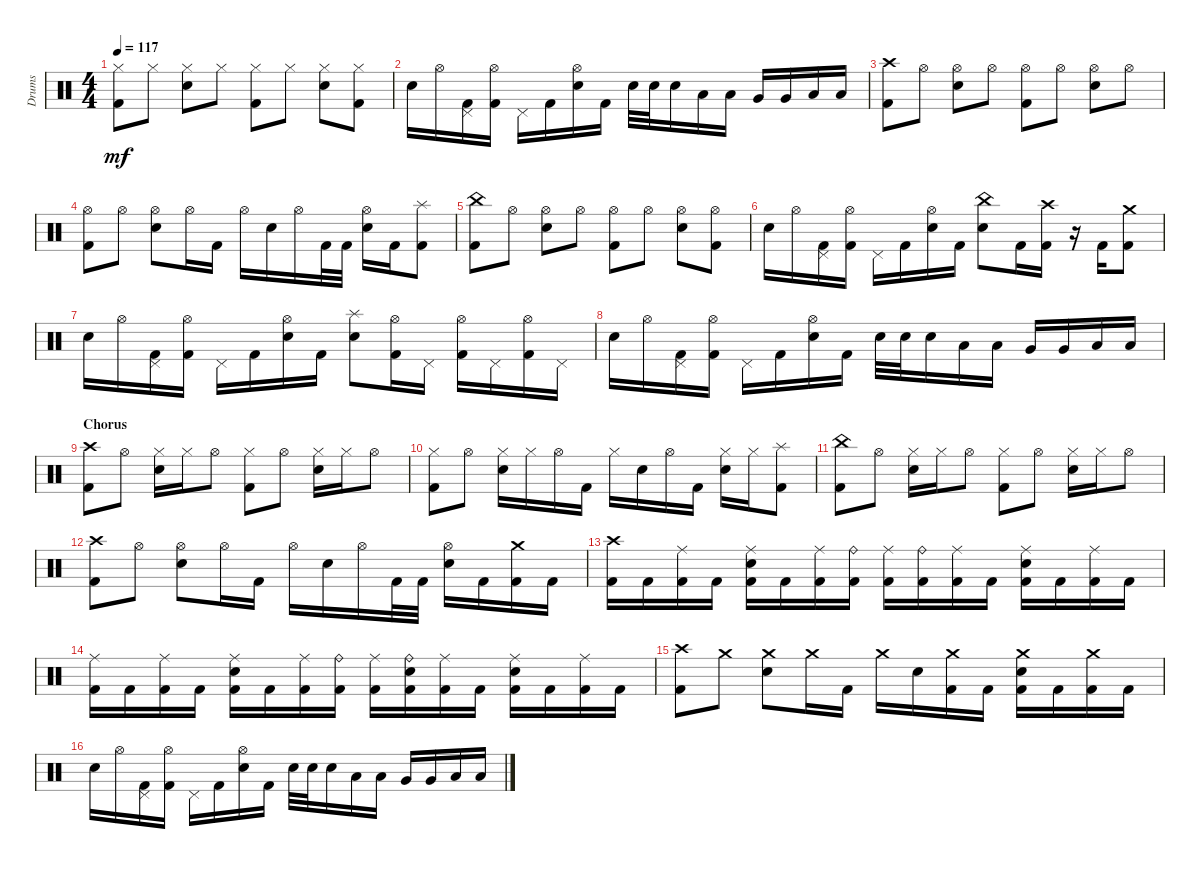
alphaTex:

\track ("Drums" "Drums") {instrument percussion}
\staff {score}
\articulation defaults
\ts (4 4)
\tempo 117
\clef neutral
\ks aminor
("Kick (hit) 2" "Hi-Hat (closed)").8{dy mf} "Hi-Hat (closed)".8 ("Hi-Hat (closed)" "Snare (hit) 2").8 "Hi-Hat (closed)".8 ("Kick (hit) 2" "Hi-Hat (closed)").8 "Hi-Hat (closed)".8 ("Hi-Hat (closed)" "Snare (hit) 2").8 ("Hi-Hat (closed)" "Kick (hit) 2").8 |
"Snare (hit) 2".16 "Hi-Hat (open)".16 ("Kick (hit) 2" "Pedal Hi-Hat (hit)").16 ("Hi-Hat (open)" "Kick (hit) 2").16 "Pedal Hi-Hat (hit)".16 "Kick (hit) 2".16 ("Snare (hit) 2" "Hi-Hat (open)").16 "Kick (hit) 2".16 "Snare (hit) 2".32 "Snare (hit) 2".32 "Snare (hit) 2".16 "Low Tom (hit)".16 "Low Tom (hit)".16 "Very Low Tom (hit)".16 "Very Low Tom (hit)".16 "Low Floor Tom (hit)".16 "Low Floor Tom (hit)".16 |
("Kick (hit) 2" "Crash high (hit)").8 "Hi-Hat (open)".8 ("Hi-Hat (open)" "Snare (hit) 2").8 "Hi-Hat (open)".8 ("Kick (hit) 2" "Hi-Hat (open)").8 "Hi-Hat (open)".8 ("Hi-Hat (open)" "Snare (hit) 2").8 "Hi-Hat (open)".8 |
("Kick (hit) 2" "Hi-Hat (open)").8 "Hi-Hat (open)".8 ("Hi-Hat (open)" "Snare (hit) 2").8 "Hi-Hat (open)".16 "Kick (hit) 2".16 "Hi-Hat (open)".16 "Snare (hit) 2".16 "Hi-Hat (open)".16 "Kick (hit) 2".32 "Kick (hit) 2".32 ("Hi-Hat (open)" "Snare (hit) 2").16 "Kick (hit) 2".16 ("Splash (hit)" "Kick (hit) 2").8 |
("Kick (hit) 2" "China (hit)").8 "Hi-Hat (open)".8 ("Snare (hit) 2" "Hi-Hat (open)").8 "Hi-Hat (open)".8 ("Hi-Hat (open)" "Kick (hit) 2").8 "Hi-Hat (open)".8 ("Snare (hit) 2" "Hi-Hat (open)").8 ("Hi-Hat (open)" "Kick (hit) 2").8 |
"Snare (hit) 2".16 "Hi-Hat (open)".16 ("Pedal Hi-Hat (hit)" "Kick (hit) 2").16 ("Hi-Hat (open)" "Kick (hit) 2").16 "Pedal Hi-Hat (hit)".16 "Kick (hit) 2".16 ("Hi-Hat (open)" "Snare (hit) 2").16 "Kick (hit) 2".16 ("Snare (hit) 2" "China (hit)").8 "Kick (hit) 2".16 ("Kick (hit) 2" "Crash high (hit)").16 r.16 "Kick (hit) 2".16 ("Crash medium (hit)" "Kick (hit) 2").8 |
"Snare (hit) 2".16 "Hi-Hat (open)".16 ("Kick (hit) 2" "Pedal Hi-Hat (hit)").16 ("Kick (hit) 2" "Hi-Hat (open)").16 "Pedal Hi-Hat (hit)".16 "Kick (hit) 2".16 ("Snare (hit) 2" "Hi-Hat (open)").16 "Kick (hit) 2".16 ("Snare (hit) 2" "Splash (hit)").8 ("Kick (hit) 2" "Hi-Hat (open)").16 "Pedal Hi-Hat (hit)".16 ("Kick (hit) 2" "Hi-Hat (open)").16 "Pedal Hi-Hat (hit)".16 ("Kick (hit) 2" "Hi-Hat (open)").16 "Pedal Hi-Hat (hit)".16 |
"Snare (hit) 2".16 "Hi-Hat (open)".16 ("Kick (hit) 2" "Pedal Hi-Hat (hit)").16 ("Kick (hit) 2" "Hi-Hat (open)").16 "Pedal Hi-Hat (hit)".16 "Kick (hit) 2".16 ("Snare (hit) 2" "Hi-Hat (open)").16 "Kick (hit) 2".16 "Snare (hit) 2".32 "Snare (hit) 2".32 "Snare (hit) 2".16 "Low Tom (hit)".16 "Low Tom (hit)".16 "Very Low Tom (hit)".16 "Very Low Tom (hit)".16 "Low Floor Tom (hit)".16 "Low Floor Tom (hit)".16 |
\section ("" "Chorus")
("Crash high (hit)" "Kick (hit) 2").8 "Hi-Hat (open)".8 ("Hi-Hat (closed)" "Snare (hit) 2").16 "Hi-Hat (closed)".16 "Hi-Hat (open)".8 ("Kick (hit) 2" "Hi-Hat (closed)").8 "Hi-Hat (open)".8 ("Hi-Hat (closed)" "Snare (hit) 2").16 "Hi-Hat (closed)".16 "Hi-Hat (open)".8 |
("Kick (hit) 2" "Hi-Hat (closed)").8 "Hi-Hat (open)".8 ("Hi-Hat (closed)" "Snare (hit) 2").16 "Hi-Hat (closed)".16 "Hi-Hat (open)".16 "Kick (hit) 2".16 "Hi-Hat (closed)".16 "Snare (hit) 2".16 "Hi-Hat (open)".16 "Kick (hit) 2".16 ("Snare (hit) 2" "Hi-Hat (closed)").16 "Hi-Hat (closed)".16 ("Splash (hit)" "Kick (hit) 2").8 |
("Kick (hit) 2" "China (hit)").8 "Hi-Hat (open)".8 ("Snare (hit) 2" "Hi-Hat (closed)").16 "Hi-Hat (closed)".16 "Hi-Hat (open)".8 ("Kick (hit) 2" "Hi-Hat (closed)").8 "Hi-Hat (open)".8 ("Snare (hit) 2" "Hi-Hat (closed)").16 "Hi-Hat (closed)".16 "Hi-Hat (open)".8 |
("Crash high (hit)" "Kick (hit) 2").8 "Hi-Hat (open)".8 ("Hi-Hat (open)" "Snare (hit) 2").8 "Hi-Hat (open)".16 "Kick (hit) 2".16 "Hi-Hat (open)".16 "Snare (hit) 2".16 "Hi-Hat (open)".16 "Kick (hit) 2".32 "Kick (hit) 2".32 ("Snare (hit) 2" "Hi-Hat (open)").16 "Kick (hit) 2".16 ("Kick (hit) 2" "Crash medium (hit)").16 "Kick (hit) 2".16 |
("Crash high (hit)" "Kick (hit) 2").16 "Kick (hit) 2".16 ("Kick (hit) 2" "Ride (middle)").16 "Kick (hit) 2".16 ("Snare (hit) 2" "Ride (middle)" "Kick (hit) 2").16 "Kick (hit) 2".16 ("Ride (middle)" "Kick (hit) 2").16 ("Ride (bell)" "Kick (hit) 2").16 ("Kick (hit) 2" "Ride (middle)").16 ("Kick (hit) 2" "Ride (bell)").16 ("Kick (hit) 2" "Ride (middle)").16 "Kick (hit) 2".16 ("Kick (hit) 2" "Ride (middle)" "Snare (hit) 2").16 "Kick (hit) 2".16 ("Kick (hit) 2" "Ride (middle)").16 "Kick (hit) 2".16 |
("Kick (hit) 2" "Ride (middle)").16 "Kick (hit) 2".16 ("Kick (hit) 2" "Ride (middle)").16 "Kick (hit) 2".16 ("Kick (hit) 2" "Snare (hit) 2" "Ride (middle)").16 "Kick (hit) 2".16 ("Kick (hit) 2" "Ride (middle)").16 ("Kick (hit) 2" "Ride (bell)").16 ("Kick (hit) 2" "Ride (middle)").16 ("Snare (hit) 2" "Ride (bell)" "Kick (hit) 2").16 ("Kick (hit) 2" "Ride (middle)").16 "Kick (hit) 2".16 ("Ride (middle)" "Snare (hit) 2" "Kick (hit) 2").16 "Kick (hit) 2".16 ("Kick (hit) 2" "Ride (middle)").16 "Kick (hit) 2".16 |
("Kick (hit) 2" "Crash high (hit)").8 "Crash medium (hit)".8 ("Crash medium (hit)" "Snare (hit) 2").8 "Crash medium (hit)".16 "Kick (hit) 2".16 "Crash medium (hit)".16 "Snare (hit) 2".16 ("Kick (hit) 2" "Crash medium (hit)").16 "Kick (hit) 2".16 ("Crash medium (hit)" "Snare (hit) 2" "Kick (hit) 2").16 "Kick (hit) 2".16 ("Crash medium (hit)" "Kick (hit) 2").16 "Kick (hit) 2".16 |
"Snare (hit) 2".16 "Hi-Hat (open)".16 ("Kick (hit) 2" "Pedal Hi-Hat (hit)").16 ("Kick (hit) 2" "Hi-Hat (open)").16 "Pedal Hi-Hat (hit)".16 "Kick (hit) 2".16 ("Hi-Hat (open)" "Snare (hit) 2").16 "Kick (hit) 2".16 "Snare (hit) 2".32 "Snare (hit) 2".32 "Snare (hit) 2".16 "Low Tom (hit)".16 "Low Tom (hit)".16 "Very Low Tom (hit)".16 "Very Low Tom (hit)".16 "Low Floor Tom (hit)".16 "Low Floor Tom (hit)".16
